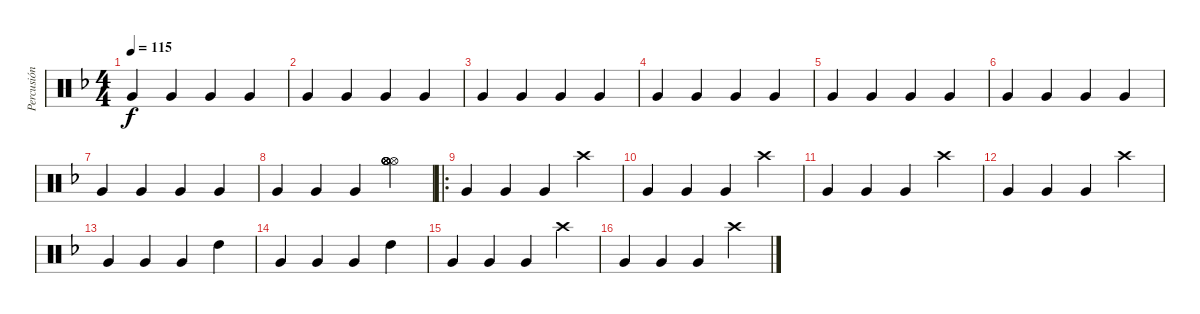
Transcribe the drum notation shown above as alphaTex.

\track ("Percusión" "Percusión") {instrument percussion}
\staff {score}
\articulation defaults
\ts (4 4)
\tempo 115
\clef neutral
\ks dminor "Very Low Tom (hit)".4{dy f} "Very Low Tom (hit)".4 "Very Low Tom (hit)".4 "Very Low Tom (hit)".4
|
"Very Low Tom (hit)".4 "Very Low Tom (hit)".4 "Very Low Tom (hit)".4 "Very Low Tom (hit)".4 |
"Very Low Tom (hit)".4 "Very Low Tom (hit)".4 "Very Low Tom (hit)".4 "Very Low Tom (hit)".4 |
"Very Low Tom (hit)".4 "Very Low Tom (hit)".4 "Very Low Tom (hit)".4 "Very Low Tom (hit)".4 |
"Very Low Tom (hit)".4 "Very Low Tom (hit)".4 "Very Low Tom (hit)".4 "Very Low Tom (hit)".4 |
"Very Low Tom (hit)".4 "Very Low Tom (hit)".4 "Very Low Tom (hit)".4 "Very Low Tom (hit)".4 |
"Very Low Tom (hit)".4 "Very Low Tom (hit)".4 "Very Low Tom (hit)".4 "Very Low Tom (hit)".4 |
"Very Low Tom (hit)".4 "Very Low Tom (hit)".4 "Very Low Tom (hit)".4 ("Hi-Hat (open)" "Hi-Hat (open)" "Hi-Hat (open)" "Hi-Hat (open)" "Hi-Hat (open)" "Hi-Hat (open)").4 |
\ro "Very Low Tom (hit)".4 "Very Low Tom (hit)".4 "Very Low Tom (hit)".4 "Crash high (hit)".4
|
"Very Low Tom (hit)".4 "Very Low Tom (hit)".4 "Very Low Tom (hit)".4 "Crash high (hit)".4 |
"Very Low Tom (hit)".4 "Very Low Tom (hit)".4 "Very Low Tom (hit)".4 "Crash high (hit)".4 |
"Very Low Tom (hit)".4 "Very Low Tom (hit)".4 "Very Low Tom (hit)".4 "Crash high (hit)".4 |
"Very Low Tom (hit)".4 "Very Low Tom (hit)".4 "Very Low Tom (hit)".4 "High Tom (hit)".4 |
"Very Low Tom (hit)".4 "Very Low Tom (hit)".4 "Very Low Tom (hit)".4 "High Tom (hit)".4 |
"Very Low Tom (hit)".4 "Very Low Tom (hit)".4 "Very Low Tom (hit)".4 "Crash high (hit)".4 |
"Very Low Tom (hit)".4 "Very Low Tom (hit)".4 "Very Low Tom (hit)".4 "Crash high (hit)".4
